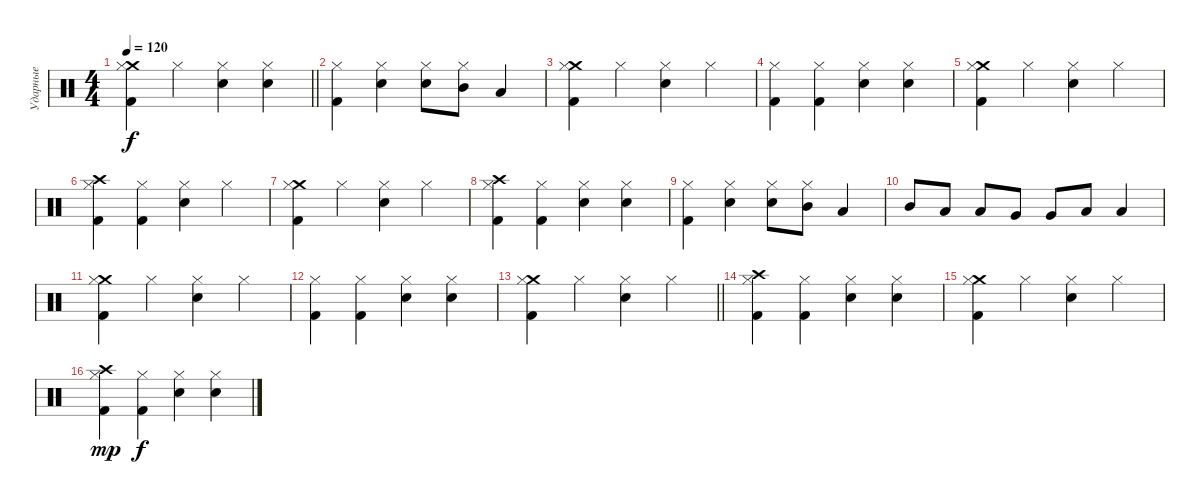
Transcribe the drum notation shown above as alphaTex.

\track ("Ударные" "Ударные") {instrument percussion}
\staff {score}
\articulation defaults
\ts (4 4)
\tempo 120
\clef neutral
\barLineRight lightlight
\ks c
("Crash medium (hit)" "Hi-Hat (closed)" "Kick (hit) 2").4{dy f} "Hi-Hat (closed)".4 ("Snare (hit) 2" "Hi-Hat (closed)").4 ("Snare (hit) 2" "Hi-Hat (closed)").4 |
("Hi-Hat (closed)" "Kick (hit) 2").4 ("Snare (hit) 2" "Hi-Hat (closed)").4 ("Snare (hit) 2" "Hi-Hat (closed)").8 ("Mid Tom (hit)" "Hi-Hat (closed)").8 "Low Tom (hit)".4 |
("Crash medium (hit)" "Hi-Hat (closed)" "Kick (hit) 2").4 "Hi-Hat (closed)".4 ("Snare (hit) 2" "Hi-Hat (closed)").4 "Hi-Hat (closed)".4 |
("Hi-Hat (closed)" "Kick (hit) 2").4 ("Hi-Hat (closed)" "Kick (hit) 2").4 ("Snare (hit) 2" "Hi-Hat (closed)").4 ("Snare (hit) 2" "Hi-Hat (closed)").4 |
("Crash medium (hit)" "Hi-Hat (closed)" "Kick (hit) 2").4 "Hi-Hat (closed)".4 ("Snare (hit) 2" "Hi-Hat (closed)").4 "Hi-Hat (closed)".4 |
("Crash high (hit)" "Hi-Hat (closed)" "Kick (hit) 2").4 ("Hi-Hat (closed)" "Kick (hit) 2").4 ("Snare (hit) 2" "Hi-Hat (closed)").4 "Hi-Hat (closed)".4 |
("Crash medium (hit)" "Hi-Hat (closed)" "Kick (hit) 2").4 "Hi-Hat (closed)".4 ("Snare (hit) 2" "Hi-Hat (closed)").4 "Hi-Hat (closed)".4 |
("Crash high (hit)" "Hi-Hat (closed)" "Kick (hit) 2").4 ("Hi-Hat (closed)" "Kick (hit) 2").4 ("Snare (hit) 2" "Hi-Hat (closed)").4 ("Snare (hit) 2" "Hi-Hat (closed)").4 |
("Hi-Hat (closed)" "Kick (hit) 2").4 ("Snare (hit) 2" "Hi-Hat (closed)").4 ("Snare (hit) 2" "Hi-Hat (closed)").8 ("Mid Tom (hit)" "Hi-Hat (closed)").8 "Low Tom (hit)".4 |
"Mid Tom (hit)".8 "Low Tom (hit)".8 "Low Tom (hit)".8 "Very Low Tom (hit)".8 "Very Low Tom (hit)".8 "Low Floor Tom (hit)".8 "Low Floor Tom (hit)".4 |
("Crash medium (hit)" "Hi-Hat (closed)" "Kick (hit) 2").4 "Hi-Hat (closed)".4 ("Snare (hit) 2" "Hi-Hat (closed)").4 "Hi-Hat (closed)".4 |
("Hi-Hat (closed)" "Kick (hit) 2").4 ("Hi-Hat (closed)" "Kick (hit) 2").4 ("Snare (hit) 2" "Hi-Hat (closed)").4 ("Snare (hit) 2" "Hi-Hat (closed)").4 |
\barLineRight lightlight
("Crash medium (hit)" "Hi-Hat (closed)" "Kick (hit) 2").4 "Hi-Hat (closed)".4 ("Snare (hit) 2" "Hi-Hat (closed)").4 "Hi-Hat (closed)".4 |
("Crash high (hit)" "Hi-Hat (closed)" "Kick (hit) 2").4 ("Hi-Hat (closed)" "Kick (hit) 2").4 ("Snare (hit) 2" "Hi-Hat (closed)").4 ("Snare (hit) 2" "Hi-Hat (closed)").4 |
("Crash medium (hit)" "Hi-Hat (closed)" "Kick (hit) 2").4 "Hi-Hat (closed)".4 ("Snare (hit) 2" "Hi-Hat (closed)").4 "Hi-Hat (closed)".4 |
("Crash high (hit)" "Hi-Hat (closed)" "Kick (hit) 2").4{dy mp} ("Hi-Hat (closed)" "Kick (hit) 2").4{dy f} ("Snare (hit) 2" "Hi-Hat (closed)").4 ("Snare (hit) 2" "Hi-Hat (closed)").4
